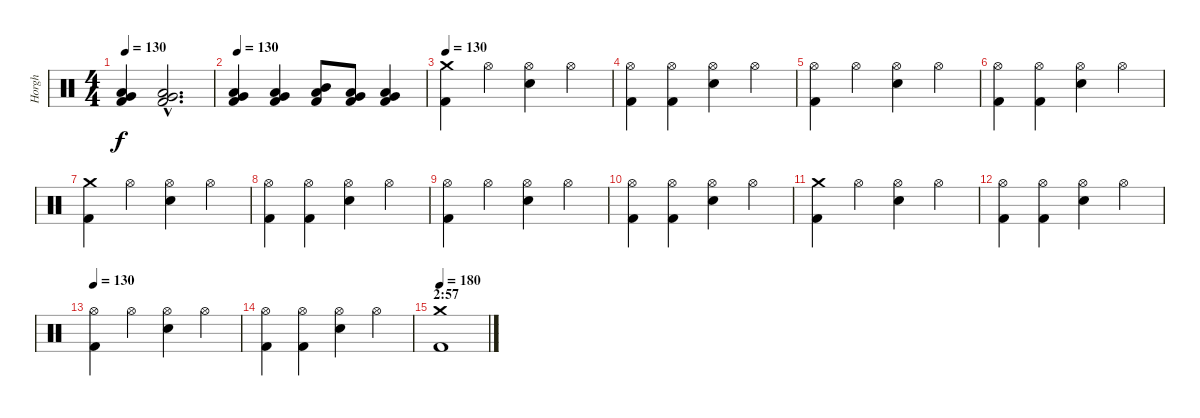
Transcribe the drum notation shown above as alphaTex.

\track ("Horgh" "Horgh") {instrument percussion}
\staff {score}
\articulation defaults
\ts (4 4)
\tempo 130
\clef neutral
\ks c
("Very Low Tom (hit)" "Low Floor Tom (hit)" "Kick (hit) 2").4{dy f} ("Very Low Tom (hit)"{hac} "Low Floor Tom (hit)"{hac} "Kick (hit) 2"{hac}).2{d} |
\tempo 130
("Very Low Tom (hit)" "Low Floor Tom (hit)" "Kick (hit) 2").4 ("Very Low Tom (hit)" "Low Floor Tom (hit)" "Kick (hit) 2").4 ("Low Tom (hit)" "Mid Tom (hit)" "Kick (hit) 2").8 ("Very Low Tom (hit)" "Low Tom (hit)" "Kick (hit) 2").8 ("Very Low Tom (hit)" "Low Floor Tom (hit)" "Kick (hit) 2").4 |
\tempo 130
("Crash medium (hit)" "Kick (hit) 2").4 "Hi-Hat (open)".4 ("Hi-Hat (open)" "Electric Snare (hit)").4 "Hi-Hat (open)".4 |
("Hi-Hat (open)" "Kick (hit) 2").4 ("Hi-Hat (open)" "Kick (hit) 2").4 ("Hi-Hat (open)" "Electric Snare (hit)").4 "Hi-Hat (open)".4 |
("Hi-Hat (open)" "Kick (hit) 2").4 "Hi-Hat (open)".4 ("Hi-Hat (open)" "Electric Snare (hit)").4 "Hi-Hat (open)".4 |
("Hi-Hat (open)" "Kick (hit) 2").4 ("Hi-Hat (open)" "Kick (hit) 2").4 ("Hi-Hat (open)" "Electric Snare (hit)").4 "Hi-Hat (open)".4 |
("Crash medium (hit)" "Kick (hit) 2").4 "Hi-Hat (open)".4 ("Hi-Hat (open)" "Electric Snare (hit)").4 "Hi-Hat (open)".4 |
("Hi-Hat (open)" "Kick (hit) 2").4 ("Hi-Hat (open)" "Kick (hit) 2").4 ("Hi-Hat (open)" "Electric Snare (hit)").4 "Hi-Hat (open)".4 |
("Hi-Hat (open)" "Kick (hit) 2").4 "Hi-Hat (open)".4 ("Hi-Hat (open)" "Electric Snare (hit)").4 "Hi-Hat (open)".4 |
("Hi-Hat (open)" "Kick (hit) 2").4 ("Hi-Hat (open)" "Kick (hit) 2").4 ("Hi-Hat (open)" "Electric Snare (hit)").4 "Hi-Hat (open)".4 |
("Crash medium (hit)" "Kick (hit) 2").4 "Hi-Hat (open)".4 ("Hi-Hat (open)" "Electric Snare (hit)").4 "Hi-Hat (open)".4 |
("Hi-Hat (open)" "Kick (hit) 2").4 ("Hi-Hat (open)" "Kick (hit) 2").4 ("Hi-Hat (open)" "Electric Snare (hit)").4 "Hi-Hat (open)".4 |
\tempo 130
("Hi-Hat (open)" "Kick (hit) 2").4 "Hi-Hat (open)".4 ("Hi-Hat (open)" "Electric Snare (hit)").4 "Hi-Hat (open)".4 |
("Hi-Hat (open)" "Kick (hit) 2").4 ("Hi-Hat (open)" "Kick (hit) 2").4 ("Hi-Hat (open)" "Electric Snare (hit)").4 "Hi-Hat (open)".4 |
\section ("" "2:57")
\tempo 180
("Crash medium (hit)" "Kick (hit) 2").1
